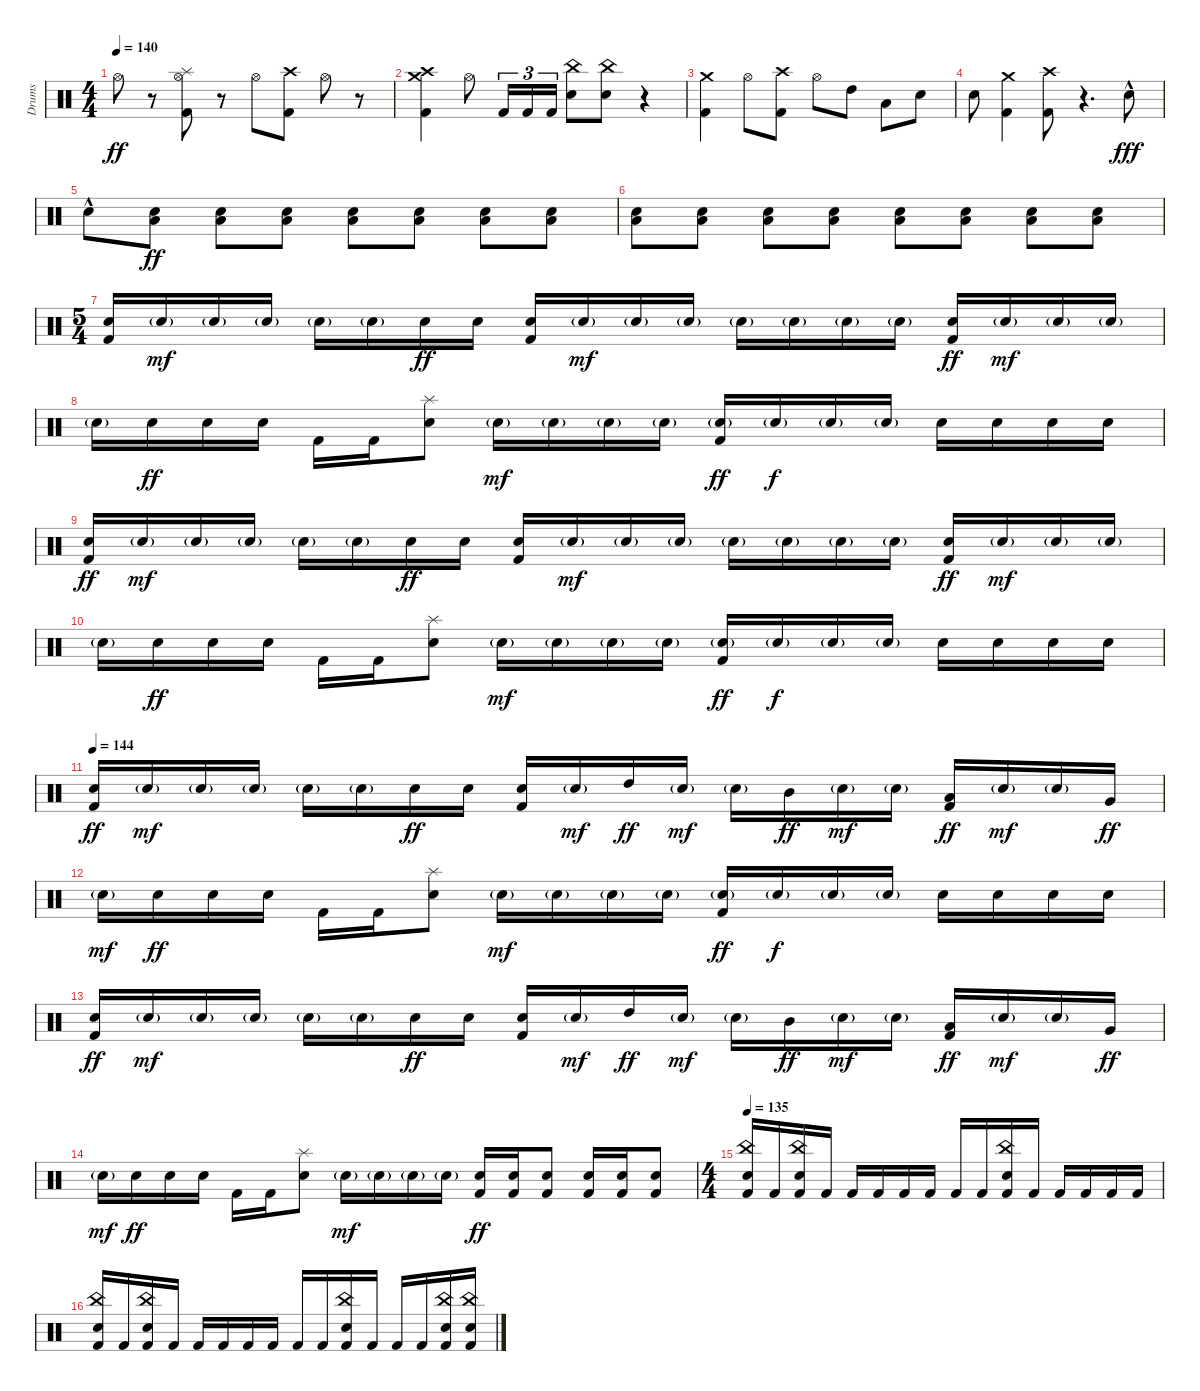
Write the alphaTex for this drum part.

\track ("Drums" "Drums") {instrument percussion}
\staff {score}
\articulation defaults
\ts (4 4)
\tempo 140
\clef neutral
\ks c "Hi-Hat (open)".8{dy ff}
r.8 ("Splash (hit)" "Hi-Hat (open)" "Kick (hit) 2").8 r.8 "Hi-Hat (open)".8 ("Crash high (hit)" "Kick (hit) 2").8 "Hi-Hat (open)".8 r.8 |
("Crash medium (hit)" "Crash high (hit)" "Kick (hit) 2").4 "Hi-Hat (open)".8 "Kick (hit) 2".16{tu (3 2)} "Kick (hit) 2".16{tu (3 2)} "Kick (hit) 2".16{tu (3 2)} ("China (hit)" "Electric Snare (hit)").8 ("China (hit)" "Electric Snare (hit)").8 r.4 |
("Crash medium (hit)" "Kick (hit) 2").4 "Hi-Hat (open)".8 ("Crash high (hit)" "Kick (hit) 2").8 "Hi-Hat (open)".8 "High Tom (hit)".8 "Low Tom (hit)".8 "Electric Snare (hit)".8 |
"Electric Snare (hit)".8 ("Crash medium (hit)" "Kick (hit) 2").4 ("Crash high (hit)" "Kick (hit) 2").8 r.4{d} "Electric Snare (hit)"{hac}.8{dy fff} |
"Electric Snare (hit)"{hac}.8 ("Low Floor Tom (hit)" "Electric Snare (hit)").8{dy ff} ("Low Floor Tom (hit)" "Electric Snare (hit)").8 ("Low Floor Tom (hit)" "Electric Snare (hit)").8 ("Low Floor Tom (hit)" "Electric Snare (hit)").8 ("Low Floor Tom (hit)" "Electric Snare (hit)").8 ("Low Floor Tom (hit)" "Electric Snare (hit)").8 ("Low Floor Tom (hit)" "Electric Snare (hit)").8 |
("Low Floor Tom (hit)" "Electric Snare (hit)").8 ("Low Floor Tom (hit)" "Electric Snare (hit)").8 ("Low Floor Tom (hit)" "Electric Snare (hit)").8 ("Low Floor Tom (hit)" "Electric Snare (hit)").8 ("Low Floor Tom (hit)" "Electric Snare (hit)").8 ("Low Floor Tom (hit)" "Electric Snare (hit)").8 ("Low Floor Tom (hit)" "Electric Snare (hit)").8 ("Low Floor Tom (hit)" "Electric Snare (hit)").8 |
\ts (5 4)
("Electric Snare (hit)" "Kick (hit) 2").16 "Electric Snare (hit)"{g}.16{dy mf} "Electric Snare (hit)"{g}.16 "Electric Snare (hit)"{g}.16 "Electric Snare (hit)"{g}.16 "Electric Snare (hit)"{g}.16 "Electric Snare (hit)".16{dy ff} "Electric Snare (hit)".16 ("Electric Snare (hit)" "Kick (hit) 2").16 "Electric Snare (hit)"{g}.16{dy mf} "Electric Snare (hit)"{g}.16 "Electric Snare (hit)"{g}.16 "Electric Snare (hit)"{g}.16 "Electric Snare (hit)"{g}.16 "Electric Snare (hit)"{g}.16 "Electric Snare (hit)"{g}.16 ("Electric Snare (hit)" "Kick (hit) 2").16{dy ff} "Electric Snare (hit)"{g}.16{dy mf} "Electric Snare (hit)"{g}.16 "Electric Snare (hit)"{g}.16 |
"Electric Snare (hit)"{g}.16 "Electric Snare (hit)".16{dy ff} "Electric Snare (hit)".16 "Electric Snare (hit)".16 "Kick (hit) 2".16 "Kick (hit) 2".16 ("Splash (hit)" "Electric Snare (hit)").8 "Electric Snare (hit)"{g}.16{dy mf} "Electric Snare (hit)"{g}.16 "Electric Snare (hit)"{g}.16 "Electric Snare (hit)"{g}.16 ("Electric Snare (hit)"{g} "Kick (hit) 2").16{dy ff} "Electric Snare (hit)"{g}.16{dy f} "Electric Snare (hit)"{g}.16 "Electric Snare (hit)"{g}.16 "Electric Snare (hit)".16 "Electric Snare (hit)".16 "Electric Snare (hit)".16 "Electric Snare (hit)".16 |
("Electric Snare (hit)" "Kick (hit) 2").16{dy ff} "Electric Snare (hit)"{g}.16{dy mf} "Electric Snare (hit)"{g}.16 "Electric Snare (hit)"{g}.16 "Electric Snare (hit)"{g}.16 "Electric Snare (hit)"{g}.16 "Electric Snare (hit)".16{dy ff} "Electric Snare (hit)".16 ("Electric Snare (hit)" "Kick (hit) 2").16 "Electric Snare (hit)"{g}.16{dy mf} "Electric Snare (hit)"{g}.16 "Electric Snare (hit)"{g}.16 "Electric Snare (hit)"{g}.16 "Electric Snare (hit)"{g}.16 "Electric Snare (hit)"{g}.16 "Electric Snare (hit)"{g}.16 ("Electric Snare (hit)" "Kick (hit) 2").16{dy ff} "Electric Snare (hit)"{g}.16{dy mf} "Electric Snare (hit)"{g}.16 "Electric Snare (hit)"{g}.16 |
"Electric Snare (hit)"{g}.16 "Electric Snare (hit)".16{dy ff} "Electric Snare (hit)".16 "Electric Snare (hit)".16 "Kick (hit) 2".16 "Kick (hit) 2".16 ("Splash (hit)" "Electric Snare (hit)").8 "Electric Snare (hit)"{g}.16{dy mf} "Electric Snare (hit)"{g}.16 "Electric Snare (hit)"{g}.16 "Electric Snare (hit)"{g}.16 ("Electric Snare (hit)"{g} "Kick (hit) 2").16{dy ff} "Electric Snare (hit)"{g}.16{dy f} "Electric Snare (hit)"{g}.16 "Electric Snare (hit)"{g}.16 "Electric Snare (hit)".16 "Electric Snare (hit)".16 "Electric Snare (hit)".16 "Electric Snare (hit)".16 |
\tempo 144
("Electric Snare (hit)" "Kick (hit) 2").16{dy ff} "Electric Snare (hit)"{g}.16{dy mf} "Electric Snare (hit)"{g}.16 "Electric Snare (hit)"{g}.16 "Electric Snare (hit)"{g}.16 "Electric Snare (hit)"{g}.16 "Electric Snare (hit)".16{dy ff} "Electric Snare (hit)".16 ("Electric Snare (hit)" "Kick (hit) 2").16 "Electric Snare (hit)"{g}.16{dy mf} "High Tom (hit)".16{dy ff} "Electric Snare (hit)"{g}.16{dy mf} "Electric Snare (hit)"{g}.16 "Mid Tom (hit)".16{dy ff} "Electric Snare (hit)"{g}.16{dy mf} "Electric Snare (hit)"{g}.16 ("Low Tom (hit)" "Kick (hit) 2").16{dy ff} "Electric Snare (hit)"{g}.16{dy mf} "Electric Snare (hit)"{g}.16 "Very Low Tom (hit)".16{dy ff} |
"Electric Snare (hit)"{g}.16{dy mf} "Electric Snare (hit)".16{dy ff} "Electric Snare (hit)".16 "Electric Snare (hit)".16 "Kick (hit) 2".16 "Kick (hit) 2".16 ("Splash (hit)" "Electric Snare (hit)").8 "Electric Snare (hit)"{g}.16{dy mf} "Electric Snare (hit)"{g}.16 "Electric Snare (hit)"{g}.16 "Electric Snare (hit)"{g}.16 ("Electric Snare (hit)"{g} "Kick (hit) 2").16{dy ff} "Electric Snare (hit)"{g}.16{dy f} "Electric Snare (hit)"{g}.16 "Electric Snare (hit)"{g}.16 "Electric Snare (hit)".16 "Electric Snare (hit)".16 "Electric Snare (hit)".16 "Electric Snare (hit)".16 |
("Electric Snare (hit)" "Kick (hit) 2").16{dy ff} "Electric Snare (hit)"{g}.16{dy mf} "Electric Snare (hit)"{g}.16 "Electric Snare (hit)"{g}.16 "Electric Snare (hit)"{g}.16 "Electric Snare (hit)"{g}.16 "Electric Snare (hit)".16{dy ff} "Electric Snare (hit)".16 ("Electric Snare (hit)" "Kick (hit) 2").16 "Electric Snare (hit)"{g}.16{dy mf} "High Tom (hit)".16{dy ff} "Electric Snare (hit)"{g}.16{dy mf} "Electric Snare (hit)"{g}.16 "Mid Tom (hit)".16{dy ff} "Electric Snare (hit)"{g}.16{dy mf} "Electric Snare (hit)"{g}.16 ("Low Tom (hit)" "Kick (hit) 2").16{dy ff} "Electric Snare (hit)"{g}.16{dy mf} "Electric Snare (hit)"{g}.16 "Very Low Tom (hit)".16{dy ff} |
"Electric Snare (hit)"{g}.16{dy mf} "Electric Snare (hit)".16{dy ff} "Electric Snare (hit)".16 "Electric Snare (hit)".16 "Kick (hit) 2".16 "Kick (hit) 2".16 ("Splash (hit)" "Electric Snare (hit)").8 "Electric Snare (hit)"{g}.16{dy mf} "Electric Snare (hit)"{g}.16 "Electric Snare (hit)"{g}.16 "Electric Snare (hit)"{g}.16 ("Electric Snare (hit)" "Kick (hit) 2").16{dy ff} ("Electric Snare (hit)" "Kick (hit) 2").16 ("Electric Snare (hit)" "Kick (hit) 2").8 ("Electric Snare (hit)" "Kick (hit) 2").16 ("Electric Snare (hit)" "Kick (hit) 2").16 ("Electric Snare (hit)" "Kick (hit) 2").8 |
\ts (4 4)
\tempo 135
("China (hit)" "Electric Snare (hit)" "Kick (hit) 2").16 "Kick (hit) 2".16 ("China (hit)" "Electric Snare (hit)" "Kick (hit) 2").16 "Kick (hit) 2".16 "Kick (hit) 2".16 "Kick (hit) 2".16 "Kick (hit) 2".16 "Kick (hit) 2".16 "Kick (hit) 2".16 "Kick (hit) 2".16 ("China (hit)" "Electric Snare (hit)" "Kick (hit) 2").16 "Kick (hit) 2".16 "Kick (hit) 2".16 "Kick (hit) 2".16 "Kick (hit) 2".16 "Kick (hit) 2".16 |
("China (hit)" "Electric Snare (hit)" "Kick (hit) 2").16 "Kick (hit) 2".16 ("China (hit)" "Electric Snare (hit)" "Kick (hit) 2").16 "Kick (hit) 2".16 "Kick (hit) 2".16 "Kick (hit) 2".16 "Kick (hit) 2".16 "Kick (hit) 2".16 "Kick (hit) 2".16 "Kick (hit) 2".16 ("China (hit)" "Electric Snare (hit)" "Kick (hit) 2").16 "Kick (hit) 2".16 "Kick (hit) 2".16 "Kick (hit) 2".16 ("China (hit)" "Electric Snare (hit)" "Kick (hit) 2").16 ("China (hit)" "Electric Snare (hit)" "Kick (hit) 2").16
